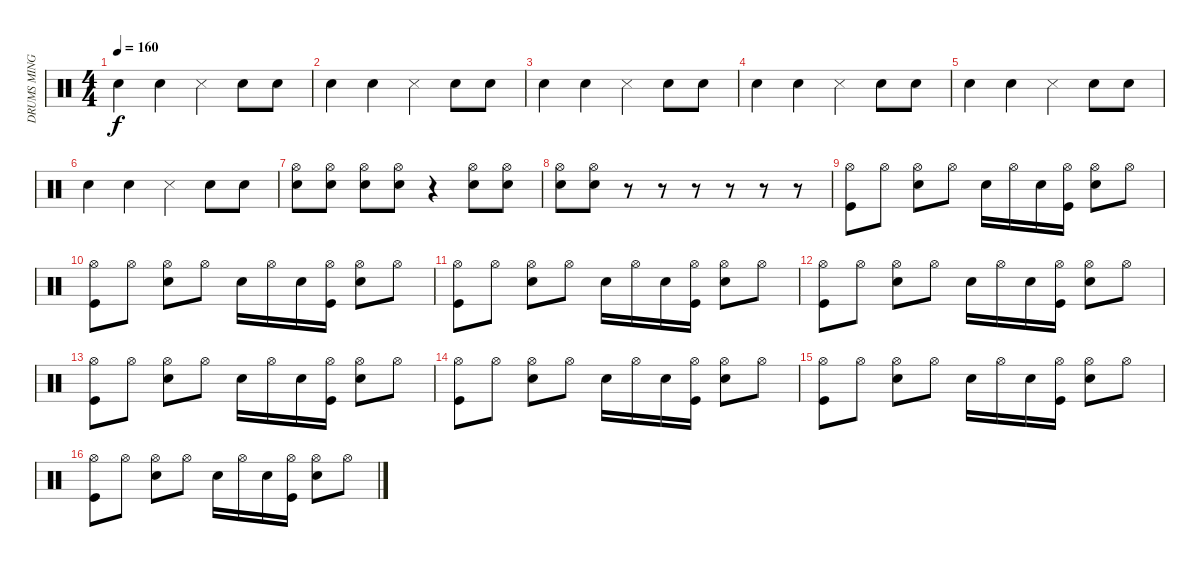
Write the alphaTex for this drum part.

\track ("DRUMS MING" "DRUMS MING") {instrument percussion}
\staff {score}
\articulation defaults
\ts (4 4)
\tempo 160
\clef neutral
\ks c "Snare (hit) 2".4{dy f} "Snare (hit) 2".4 "Snare (side stick) 3".4 "Snare (hit) 2".8 "Snare (hit) 2".8
|
"Snare (hit) 2".4 "Snare (hit) 2".4 "Snare (side stick) 3".4 "Snare (hit) 2".8 "Snare (hit) 2".8 |
"Snare (hit) 2".4 "Snare (hit) 2".4 "Snare (side stick) 3".4 "Snare (hit) 2".8 "Snare (hit) 2".8 |
"Snare (hit) 2".4 "Snare (hit) 2".4 "Snare (side stick) 3".4 "Snare (hit) 2".8 "Snare (hit) 2".8 |
"Snare (hit) 2".4 "Snare (hit) 2".4 "Snare (side stick) 3".4 "Snare (hit) 2".8 "Snare (hit) 2".8 |
"Snare (hit) 2".4 "Snare (hit) 2".4 "Snare (side stick) 3".4 "Snare (hit) 2".8 "Snare (hit) 2".8 |
("Hi-Hat (open)" "Snare (hit) 2").8 ("Hi-Hat (open)" "Snare (hit) 2").8 ("Hi-Hat (open)" "Snare (hit) 2").8 ("Hi-Hat (open)" "Snare (hit) 2").8 r.4 ("Hi-Hat (open)" "Snare (hit) 2").8 ("Snare (hit) 2" "Hi-Hat (open)").8 |
("Snare (hit) 2" "Hi-Hat (open)").8 ("Snare (hit) 2" "Hi-Hat (open)").8 r.8 r.8 r.8 r.8 r.8 r.8 |
("Hi-Hat (open)" "Kick (hit)").8 "Hi-Hat (open)".8 ("Hi-Hat (open)" "Snare (hit) 2").8 "Hi-Hat (open)".8 "Snare (hit) 2".16 "Hi-Hat (open)".16 "Snare (hit) 2".16 ("Hi-Hat (open)" "Kick (hit)").16 ("Hi-Hat (open)" "Snare (hit) 2").8 "Hi-Hat (open)".8 |
("Hi-Hat (open)" "Kick (hit)").8 "Hi-Hat (open)".8 ("Hi-Hat (open)" "Snare (hit) 2").8 "Hi-Hat (open)".8 "Snare (hit) 2".16 "Hi-Hat (open)".16 "Snare (hit) 2".16 ("Hi-Hat (open)" "Kick (hit)").16 ("Hi-Hat (open)" "Snare (hit) 2").8 "Hi-Hat (open)".8 |
("Hi-Hat (open)" "Kick (hit)").8 "Hi-Hat (open)".8 ("Hi-Hat (open)" "Snare (hit) 2").8 "Hi-Hat (open)".8 "Snare (hit) 2".16 "Hi-Hat (open)".16 "Snare (hit) 2".16 ("Hi-Hat (open)" "Kick (hit)").16 ("Hi-Hat (open)" "Snare (hit) 2").8 "Hi-Hat (open)".8 |
("Hi-Hat (open)" "Kick (hit)").8 "Hi-Hat (open)".8 ("Hi-Hat (open)" "Snare (hit) 2").8 "Hi-Hat (open)".8 "Snare (hit) 2".16 "Hi-Hat (open)".16 "Snare (hit) 2".16 ("Hi-Hat (open)" "Kick (hit)").16 ("Hi-Hat (open)" "Snare (hit) 2").8 "Hi-Hat (open)".8 |
("Hi-Hat (open)" "Kick (hit)").8 "Hi-Hat (open)".8 ("Hi-Hat (open)" "Snare (hit) 2").8 "Hi-Hat (open)".8 "Snare (hit) 2".16 "Hi-Hat (open)".16 "Snare (hit) 2".16 ("Hi-Hat (open)" "Kick (hit)").16 ("Hi-Hat (open)" "Snare (hit) 2").8 "Hi-Hat (open)".8 |
("Hi-Hat (open)" "Kick (hit)").8 "Hi-Hat (open)".8 ("Hi-Hat (open)" "Snare (hit) 2").8 "Hi-Hat (open)".8 "Snare (hit) 2".16 "Hi-Hat (open)".16 "Snare (hit) 2".16 ("Hi-Hat (open)" "Kick (hit)").16 ("Hi-Hat (open)" "Snare (hit) 2").8 "Hi-Hat (open)".8 |
("Hi-Hat (open)" "Kick (hit)").8 "Hi-Hat (open)".8 ("Hi-Hat (open)" "Snare (hit) 2").8 "Hi-Hat (open)".8 "Snare (hit) 2".16 "Hi-Hat (open)".16 "Snare (hit) 2".16 ("Hi-Hat (open)" "Kick (hit)").16 ("Hi-Hat (open)" "Snare (hit) 2").8 "Hi-Hat (open)".8 |
("Hi-Hat (open)" "Kick (hit)").8 "Hi-Hat (open)".8 ("Hi-Hat (open)" "Snare (hit) 2").8 "Hi-Hat (open)".8 "Snare (hit) 2".16 "Hi-Hat (open)".16 "Snare (hit) 2".16 ("Hi-Hat (open)" "Kick (hit)").16 ("Hi-Hat (open)" "Snare (hit) 2").8 "Hi-Hat (open)".8
